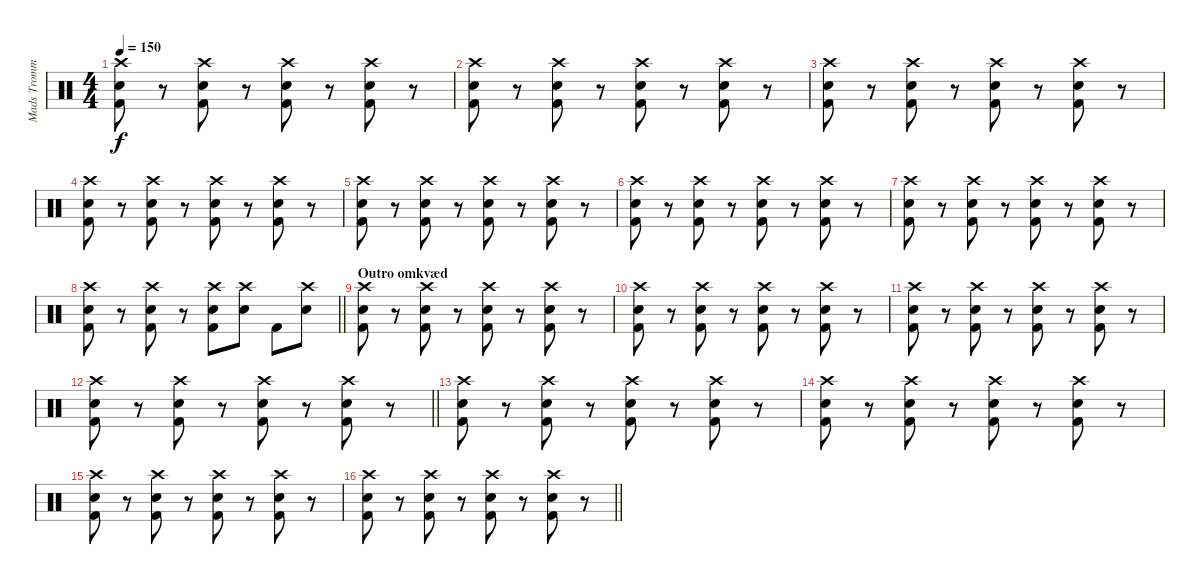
\track ("Mads Trommer" "Mads Tromm") {instrument percussion}
\staff {score}
\articulation defaults
\ts (4 4)
\tempo 150
\clef neutral
\ks c
("Crash high (hit)" "Electric Snare (hit)" "Kick (hit) 2").8{dy f} r.8 ("Crash high (hit)" "Electric Snare (hit)" "Kick (hit) 2").8 r.8 ("Crash high (hit)" "Electric Snare (hit)" "Kick (hit) 2").8 r.8 ("Crash high (hit)" "Electric Snare (hit)" "Kick (hit) 2").8 r.8 |
("Crash high (hit)" "Electric Snare (hit)" "Kick (hit) 2").8 r.8 ("Crash high (hit)" "Electric Snare (hit)" "Kick (hit) 2").8 r.8 ("Crash high (hit)" "Electric Snare (hit)" "Kick (hit) 2").8 r.8 ("Crash high (hit)" "Electric Snare (hit)" "Kick (hit) 2").8 r.8 |
("Crash high (hit)" "Electric Snare (hit)" "Kick (hit) 2").8 r.8 ("Crash high (hit)" "Electric Snare (hit)" "Kick (hit) 2").8 r.8 ("Crash high (hit)" "Electric Snare (hit)" "Kick (hit) 2").8 r.8 ("Crash high (hit)" "Electric Snare (hit)" "Kick (hit) 2").8 r.8 |
("Crash high (hit)" "Electric Snare (hit)" "Kick (hit) 2").8 r.8 ("Crash high (hit)" "Electric Snare (hit)" "Kick (hit) 2").8 r.8 ("Crash high (hit)" "Electric Snare (hit)" "Kick (hit) 2").8 r.8 ("Crash high (hit)" "Electric Snare (hit)" "Kick (hit) 2").8 r.8 |
("Crash high (hit)" "Electric Snare (hit)" "Kick (hit) 2").8 r.8 ("Crash high (hit)" "Electric Snare (hit)" "Kick (hit) 2").8 r.8 ("Crash high (hit)" "Electric Snare (hit)" "Kick (hit) 2").8 r.8 ("Crash high (hit)" "Electric Snare (hit)" "Kick (hit) 2").8 r.8 |
("Crash high (hit)" "Electric Snare (hit)" "Kick (hit) 2").8 r.8 ("Crash high (hit)" "Electric Snare (hit)" "Kick (hit) 2").8 r.8 ("Crash high (hit)" "Electric Snare (hit)" "Kick (hit) 2").8 r.8 ("Crash high (hit)" "Electric Snare (hit)" "Kick (hit) 2").8 r.8 |
("Crash high (hit)" "Electric Snare (hit)" "Kick (hit) 2").8 r.8 ("Crash high (hit)" "Electric Snare (hit)" "Kick (hit) 2").8 r.8 ("Crash high (hit)" "Electric Snare (hit)" "Kick (hit) 2").8 r.8 ("Crash high (hit)" "Electric Snare (hit)" "Kick (hit) 2").8 r.8 |
\barLineRight lightlight
("Crash high (hit)" "Electric Snare (hit)" "Kick (hit) 2").8 r.8 ("Crash high (hit)" "Electric Snare (hit)" "Kick (hit) 2").8 r.8 ("Crash high (hit)" "Electric Snare (hit)" "Kick (hit) 2").8 ("Crash high (hit)" "Electric Snare (hit)").8 "Kick (hit) 2".8 ("Crash high (hit)" "Electric Snare (hit)").8 |
\section ("" "Outro omkvæd")
("Crash high (hit)" "Electric Snare (hit)" "Kick (hit) 2").8 r.8 ("Crash high (hit)" "Electric Snare (hit)" "Kick (hit) 2").8 r.8 ("Crash high (hit)" "Electric Snare (hit)" "Kick (hit) 2").8 r.8 ("Crash high (hit)" "Electric Snare (hit)" "Kick (hit) 2").8 r.8 |
("Crash high (hit)" "Electric Snare (hit)" "Kick (hit) 2").8 r.8 ("Crash high (hit)" "Electric Snare (hit)" "Kick (hit) 2").8 r.8 ("Crash high (hit)" "Electric Snare (hit)" "Kick (hit) 2").8 r.8 ("Crash high (hit)" "Electric Snare (hit)" "Kick (hit) 2").8 r.8 |
("Crash high (hit)" "Electric Snare (hit)" "Kick (hit) 2").8 r.8 ("Crash high (hit)" "Electric Snare (hit)" "Kick (hit) 2").8 r.8 ("Crash high (hit)" "Electric Snare (hit)" "Kick (hit) 2").8 r.8 ("Crash high (hit)" "Electric Snare (hit)" "Kick (hit) 2").8 r.8 |
\barLineRight lightlight
("Crash high (hit)" "Electric Snare (hit)" "Kick (hit) 2").8 r.8 ("Crash high (hit)" "Electric Snare (hit)" "Kick (hit) 2").8 r.8 ("Crash high (hit)" "Electric Snare (hit)" "Kick (hit) 2").8 r.8 ("Crash high (hit)" "Electric Snare (hit)" "Kick (hit) 2").8 r.8 |
("Crash high (hit)" "Electric Snare (hit)" "Kick (hit) 2").8 r.8 ("Crash high (hit)" "Electric Snare (hit)" "Kick (hit) 2").8 r.8 ("Crash high (hit)" "Electric Snare (hit)" "Kick (hit) 2").8 r.8 ("Crash high (hit)" "Electric Snare (hit)" "Kick (hit) 2").8 r.8 |
("Crash high (hit)" "Electric Snare (hit)" "Kick (hit) 2").8 r.8 ("Crash high (hit)" "Electric Snare (hit)" "Kick (hit) 2").8 r.8 ("Crash high (hit)" "Electric Snare (hit)" "Kick (hit) 2").8 r.8 ("Crash high (hit)" "Electric Snare (hit)" "Kick (hit) 2").8 r.8 |
("Crash high (hit)" "Electric Snare (hit)" "Kick (hit) 2").8 r.8 ("Crash high (hit)" "Electric Snare (hit)" "Kick (hit) 2").8 r.8 ("Crash high (hit)" "Electric Snare (hit)" "Kick (hit) 2").8 r.8 ("Crash high (hit)" "Electric Snare (hit)" "Kick (hit) 2").8 r.8 |
\barLineRight lightlight
("Crash high (hit)" "Electric Snare (hit)" "Kick (hit) 2").8 r.8 ("Crash high (hit)" "Electric Snare (hit)" "Kick (hit) 2").8 r.8 ("Crash high (hit)" "Electric Snare (hit)" "Kick (hit) 2").8 r.8 ("Crash high (hit)" "Electric Snare (hit)" "Kick (hit) 2").8 r.8
